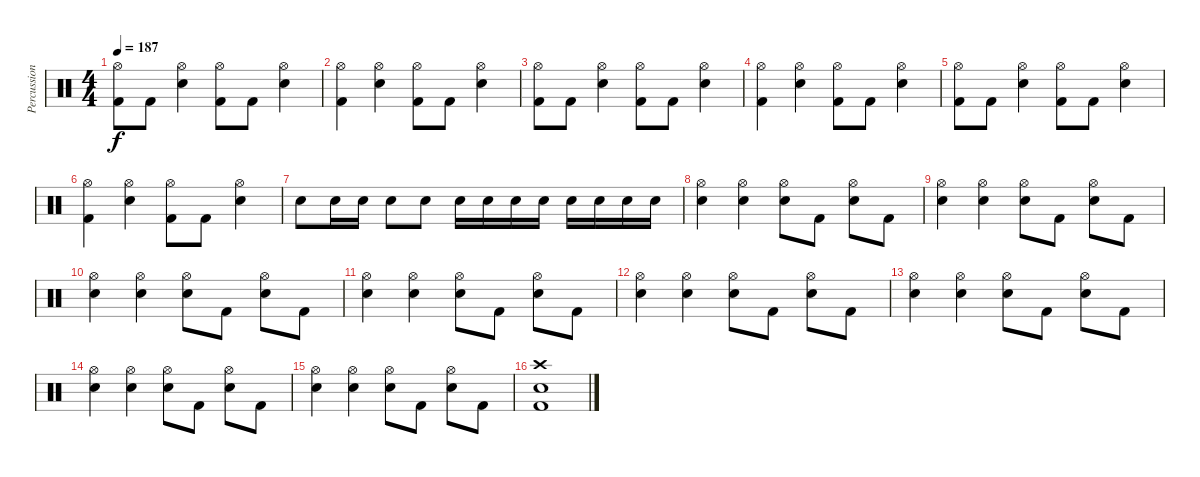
\track ("Percussion" "Percussion") {instrument percussion}
\staff {score}
\articulation defaults
\ts (4 4)
\tempo 187
\clef neutral
\ks c
("Hi-Hat (open)" "Kick (hit) 2").8{dy f} "Kick (hit) 2".8 ("Hi-Hat (open)" "Snare (hit) 2").4 ("Hi-Hat (open)" "Kick (hit) 2").8 "Kick (hit) 2".8 ("Hi-Hat (open)" "Snare (hit) 2").4 |
("Hi-Hat (open)" "Kick (hit) 2").4 ("Hi-Hat (open)" "Snare (hit) 2").4 ("Hi-Hat (open)" "Kick (hit) 2").8 "Kick (hit) 2".8 ("Hi-Hat (open)" "Snare (hit) 2").4 |
("Hi-Hat (open)" "Kick (hit) 2").8 "Kick (hit) 2".8 ("Hi-Hat (open)" "Snare (hit) 2").4 ("Hi-Hat (open)" "Kick (hit) 2").8 "Kick (hit) 2".8 ("Hi-Hat (open)" "Snare (hit) 2").4 |
("Hi-Hat (open)" "Kick (hit) 2").4 ("Hi-Hat (open)" "Snare (hit) 2").4 ("Hi-Hat (open)" "Kick (hit) 2").8 "Kick (hit) 2".8 ("Hi-Hat (open)" "Snare (hit) 2").4 |
("Hi-Hat (open)" "Kick (hit) 2").8 "Kick (hit) 2".8 ("Hi-Hat (open)" "Snare (hit) 2").4 ("Hi-Hat (open)" "Kick (hit) 2").8 "Kick (hit) 2".8 ("Hi-Hat (open)" "Snare (hit) 2").4 |
("Hi-Hat (open)" "Kick (hit) 2").4 ("Hi-Hat (open)" "Snare (hit) 2").4 ("Hi-Hat (open)" "Kick (hit) 2").8 "Kick (hit) 2".8 ("Hi-Hat (open)" "Snare (hit) 2").4 |
"Snare (hit) 2".8 "Snare (hit) 2".16 "Snare (hit) 2".16 "Snare (hit) 2".8 "Snare (hit) 2".8 "Snare (hit) 2".16 "Snare (hit) 2".16 "Snare (hit) 2".16 "Snare (hit) 2".16 "Snare (hit) 2".16 "Snare (hit) 2".16 "Snare (hit) 2".16 "Snare (hit) 2".16 |
("Hi-Hat (open)" "Snare (hit) 2").4 ("Hi-Hat (open)" "Snare (hit) 2").4 ("Hi-Hat (open)" "Snare (hit) 2").8 "Kick (hit) 2".8 ("Hi-Hat (open)" "Snare (hit) 2").8 "Kick (hit) 2".8 |
("Hi-Hat (open)" "Snare (hit) 2").4 ("Hi-Hat (open)" "Snare (hit) 2").4 ("Hi-Hat (open)" "Snare (hit) 2").8 "Kick (hit) 2".8 ("Hi-Hat (open)" "Snare (hit) 2").8 "Kick (hit) 2".8 |
("Hi-Hat (open)" "Snare (hit) 2").4 ("Hi-Hat (open)" "Snare (hit) 2").4 ("Hi-Hat (open)" "Snare (hit) 2").8 "Kick (hit) 2".8 ("Hi-Hat (open)" "Snare (hit) 2").8 "Kick (hit) 2".8 |
("Hi-Hat (open)" "Snare (hit) 2").4 ("Hi-Hat (open)" "Snare (hit) 2").4 ("Hi-Hat (open)" "Snare (hit) 2").8 "Kick (hit) 2".8 ("Hi-Hat (open)" "Snare (hit) 2").8 "Kick (hit) 2".8 |
("Hi-Hat (open)" "Snare (hit) 2").4 ("Hi-Hat (open)" "Snare (hit) 2").4 ("Hi-Hat (open)" "Snare (hit) 2").8 "Kick (hit) 2".8 ("Hi-Hat (open)" "Snare (hit) 2").8 "Kick (hit) 2".8 |
("Hi-Hat (open)" "Snare (hit) 2").4 ("Hi-Hat (open)" "Snare (hit) 2").4 ("Hi-Hat (open)" "Snare (hit) 2").8 "Kick (hit) 2".8 ("Hi-Hat (open)" "Snare (hit) 2").8 "Kick (hit) 2".8 |
("Hi-Hat (open)" "Snare (hit) 2").4 ("Hi-Hat (open)" "Snare (hit) 2").4 ("Hi-Hat (open)" "Snare (hit) 2").8 "Kick (hit) 2".8 ("Hi-Hat (open)" "Snare (hit) 2").8 "Kick (hit) 2".8 |
("Hi-Hat (open)" "Snare (hit) 2").4 ("Hi-Hat (open)" "Snare (hit) 2").4 ("Hi-Hat (open)" "Snare (hit) 2").8 "Kick (hit) 2".8 ("Hi-Hat (open)" "Snare (hit) 2").8 "Kick (hit) 2".8 |
("Crash high (hit)" "Snare (hit) 2" "Kick (hit) 2").1
